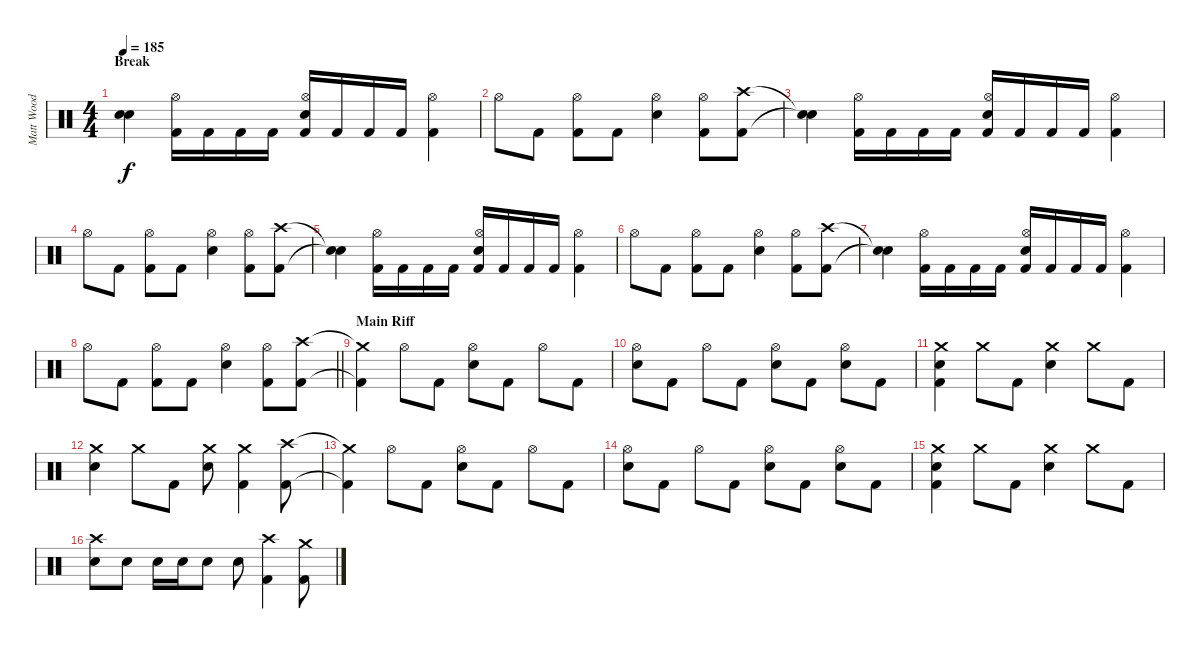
\track ("Matt Wood" "Matt Wood") {instrument percussion}
\staff {score}
\articulation defaults
\ts (4 4)
\section ("" "Break")
\tempo 185
\clef neutral
\ks c
("Snare (hit)"{t} "Snare (hit)"{t}).4{dy f} ("Hi-Hat (open)" "Kick (hit) 2").16 "Kick (hit) 2".16 "Kick (hit) 2".16 "Kick (hit) 2".16 ("Hi-Hat (open)" "Snare (hit) 2" "Kick (hit) 2").16 "Kick (hit) 2".16 "Kick (hit) 2".16 "Kick (hit) 2".16 ("Hi-Hat (open)" "Kick (hit) 2").4 |
"Hi-Hat (open)".8 "Kick (hit) 2".8 ("Hi-Hat (open)" "Kick (hit) 2").8 "Kick (hit) 2".8 ("Hi-Hat (open)" "Snare (hit) 2").4 ("Hi-Hat (open)" "Kick (hit) 2").8 ("Crash high (hit)" "Kick (hit) 2").8 |
("Snare (hit)"{t} "Snare (hit)"{t}).4 ("Hi-Hat (open)" "Kick (hit) 2").16 "Kick (hit) 2".16 "Kick (hit) 2".16 "Kick (hit) 2".16 ("Hi-Hat (open)" "Snare (hit) 2" "Kick (hit) 2").16 "Kick (hit) 2".16 "Kick (hit) 2".16 "Kick (hit) 2".16 ("Hi-Hat (open)" "Kick (hit) 2").4 |
"Hi-Hat (open)".8 "Kick (hit) 2".8 ("Hi-Hat (open)" "Kick (hit) 2").8 "Kick (hit) 2".8 ("Hi-Hat (open)" "Snare (hit) 2").4 ("Hi-Hat (open)" "Kick (hit) 2").8 ("Crash high (hit)" "Kick (hit) 2").8 |
("Snare (hit)"{t} "Snare (hit)"{t}).4 ("Hi-Hat (open)" "Kick (hit) 2").16 "Kick (hit) 2".16 "Kick (hit) 2".16 "Kick (hit) 2".16 ("Hi-Hat (open)" "Snare (hit) 2" "Kick (hit) 2").16 "Kick (hit) 2".16 "Kick (hit) 2".16 "Kick (hit) 2".16 ("Hi-Hat (open)" "Kick (hit) 2").4 |
"Hi-Hat (open)".8 "Kick (hit) 2".8 ("Hi-Hat (open)" "Kick (hit) 2").8 "Kick (hit) 2".8 ("Hi-Hat (open)" "Snare (hit) 2").4 ("Hi-Hat (open)" "Kick (hit) 2").8 ("Crash high (hit)" "Kick (hit) 2").8 |
("Snare (hit)"{t} "Snare (hit)"{t}).4 ("Hi-Hat (open)" "Kick (hit) 2").16 "Kick (hit) 2".16 "Kick (hit) 2".16 "Kick (hit) 2".16 ("Hi-Hat (open)" "Snare (hit) 2" "Kick (hit) 2").16 "Kick (hit) 2".16 "Kick (hit) 2".16 "Kick (hit) 2".16 ("Hi-Hat (open)" "Kick (hit) 2").4 |
\barLineRight lightlight "Hi-Hat (open)".8 "Kick (hit) 2".8
("Hi-Hat (open)" "Kick (hit) 2").8 "Kick (hit) 2".8 ("Hi-Hat (open)" "Snare (hit) 2").4 ("Hi-Hat (open)" "Kick (hit) 2").8 ("Crash high (hit)" "Kick (hit) 2").8 |
\section ("" "Main Riff")
("Crash medium (hit)"{t} "Kick (hit) 2"{t}).4 "Hi-Hat (open)".8 "Kick (hit) 2".8 ("Hi-Hat (open)" "Snare (hit) 2").8 "Kick (hit) 2".8 "Hi-Hat (open)".8 "Kick (hit) 2".8 |
("Hi-Hat (open)" "Snare (hit) 2").8 "Kick (hit) 2".8 "Hi-Hat (open)".8 "Kick (hit) 2".8 ("Hi-Hat (open)" "Snare (hit) 2").8 "Kick (hit) 2".8 ("Hi-Hat (open)" "Snare (hit) 2").8 "Kick (hit) 2".8 |
("Crash medium (hit)" "Snare (hit) 2" "Kick (hit) 2").4 "Crash medium (hit)".8 "Kick (hit) 2".8 ("Crash medium (hit)" "Snare (hit) 2").4 "Crash medium (hit)".8 "Kick (hit) 2".8 |
("Crash medium (hit)" "Snare (hit) 2").4 "Crash medium (hit)".8 "Kick (hit) 2".8 ("Crash medium (hit)" "Snare (hit) 2").8 ("Crash medium (hit)" "Kick (hit) 2").4 ("Crash high (hit)" "Kick (hit) 2").8 |
("Crash medium (hit)"{t} "Kick (hit) 2"{t}).4 "Hi-Hat (open)".8 "Kick (hit) 2".8 ("Hi-Hat (open)" "Snare (hit) 2").8 "Kick (hit) 2".8 "Hi-Hat (open)".8 "Kick (hit) 2".8 |
("Hi-Hat (open)" "Snare (hit) 2").8 "Kick (hit) 2".8 "Hi-Hat (open)".8 "Kick (hit) 2".8 ("Hi-Hat (open)" "Snare (hit) 2").8 "Kick (hit) 2".8 ("Hi-Hat (open)" "Snare (hit) 2").8 "Kick (hit) 2".8 |
("Crash medium (hit)" "Snare (hit) 2" "Kick (hit) 2").4 "Crash medium (hit)".8 "Kick (hit) 2".8 ("Crash medium (hit)" "Snare (hit) 2").4 "Crash medium (hit)".8 "Kick (hit) 2".8 |
("Crash high (hit)" "Snare (hit) 2").8 "Snare (hit) 2".8 "Snare (hit) 2".16 "Snare (hit) 2".16 "Snare (hit) 2".8 "Snare (hit) 2".8 ("Crash high (hit)" "Kick (hit) 2").4 ("Crash medium (hit)" "Kick (hit) 2").8
